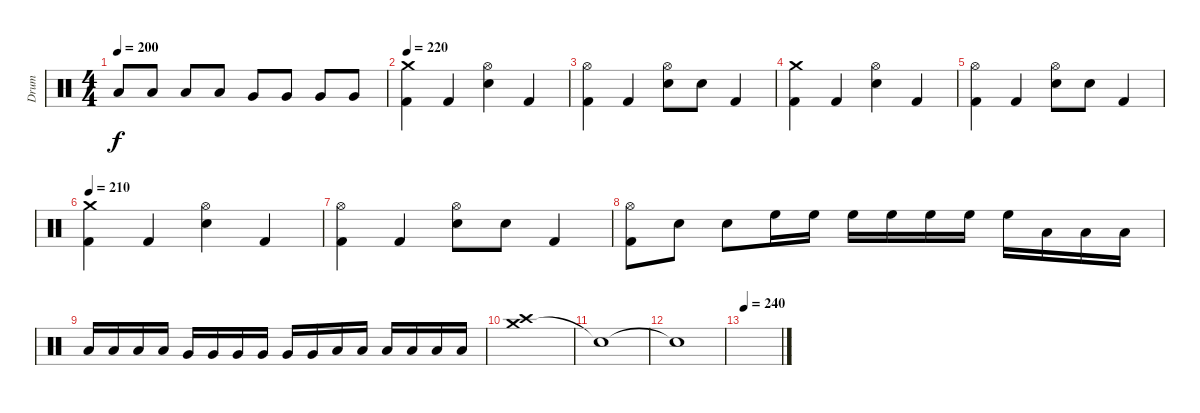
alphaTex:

\track ("Drum" "Drum") {instrument percussion}
\staff {score}
\articulation defaults
\ts (4 4)
\tempo 200
\clef neutral
\ks c "Low Tom (hit)".8{dy f} "Low Tom (hit)".8 "Low Tom (hit)".8 "Low Tom (hit)".8 "Very Low Tom (hit)".8 "Very Low Tom (hit)".8 "Very Low Tom (hit)".8 "Very Low Tom (hit)".8
|
\tempo 220
("Crash medium (hit)" "Kick (hit) 2").4 "Kick (hit) 2".4 ("Electric Snare (hit)" "Hi-Hat (open)").4 "Kick (hit) 2".4 |
("Hi-Hat (open)" "Kick (hit) 2").4 "Kick (hit) 2".4 ("Electric Snare (hit)" "Hi-Hat (open)").8 "Electric Snare (hit)".8 "Kick (hit) 2".4 |
("Crash medium (hit)" "Kick (hit) 2").4 "Kick (hit) 2".4 ("Electric Snare (hit)" "Hi-Hat (open)").4 "Kick (hit) 2".4 |
("Hi-Hat (open)" "Kick (hit) 2").4 "Kick (hit) 2".4 ("Electric Snare (hit)" "Hi-Hat (open)").8 "Electric Snare (hit)".8 "Kick (hit) 2".4 |
\tempo 210
("Crash medium (hit)" "Kick (hit) 2").4 "Kick (hit) 2".4 ("Electric Snare (hit)" "Hi-Hat (open)").4 "Kick (hit) 2".4 |
("Hi-Hat (open)" "Kick (hit) 2").4 "Kick (hit) 2".4 ("Electric Snare (hit)" "Hi-Hat (open)").8 "Electric Snare (hit)".8 "Kick (hit) 2".4 |
("Hi-Hat (open)" "Kick (hit) 2").8 "Electric Snare (hit)".8 "Electric Snare (hit)".8 "High Floor Tom (hit)".16 "High Floor Tom (hit)".16 "High Floor Tom (hit)".16 "High Floor Tom (hit)".16 "High Floor Tom (hit)".16 "High Floor Tom (hit)".16 "High Floor Tom (hit)".16 "Low Tom (hit)".16 "Low Tom (hit)".16 "Low Tom (hit)".16 |
"Low Tom (hit)".16 "Low Tom (hit)".16 "Low Tom (hit)".16 "Low Tom (hit)".16 "Very Low Tom (hit)".16 "Very Low Tom (hit)".16 "Very Low Tom (hit)".16 "Very Low Tom (hit)".16 "Very Low Tom (hit)".16 "Very Low Tom (hit)".16 "Low Floor Tom (hit)".16 "Low Floor Tom (hit)".16 "Low Floor Tom (hit)".16 "Low Floor Tom (hit)".16 "Low Floor Tom (hit)".16 "Low Floor Tom (hit)".16 |
("Crash medium (hit)" "Crash high (hit)").1 |
"Snare (hit)"{t}.1 |
"Snare (hit)"{t}.1 |
\tempo 240
